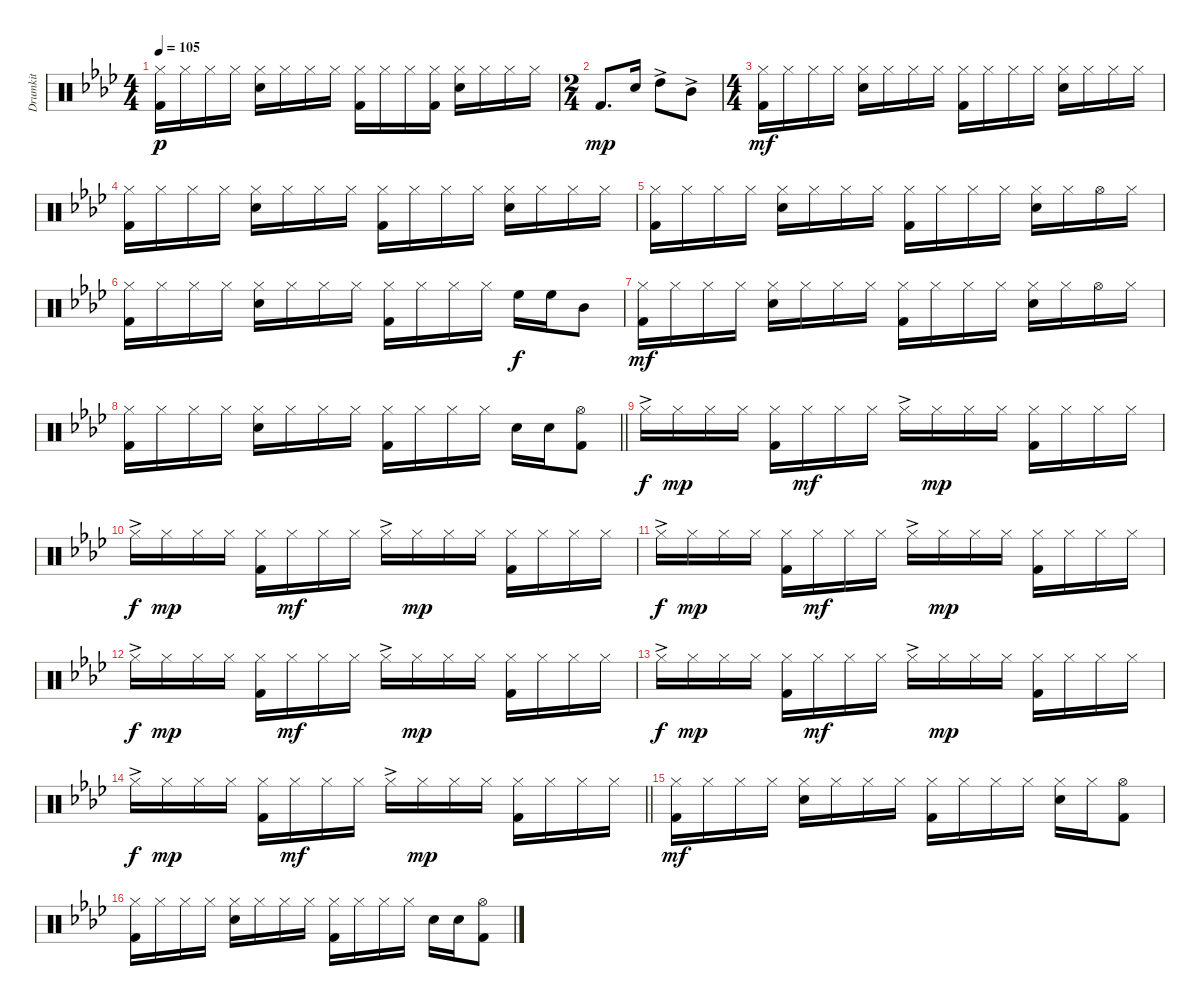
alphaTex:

\track ("Drumkit" "Drumkit") {instrument percussion}
\staff {score}
\articulation defaults
\ts (4 4)
\tempo 105
\clef neutral
\ks ab
("Hi-Hat (closed)" "Kick (hit) 2").16{dy p} "Hi-Hat (closed)".16 "Hi-Hat (closed)".16 "Hi-Hat (closed)".16 ("Hi-Hat (closed)" "Snare (hit) 2").16 "Hi-Hat (closed)".16 "Hi-Hat (closed)".16 "Hi-Hat (closed)".16 ("Hi-Hat (closed)" "Kick (hit) 2").16 "Hi-Hat (closed)".16 "Hi-Hat (closed)".16 ("Hi-Hat (closed)" "Kick (hit) 2").16 ("Hi-Hat (closed)" "Snare (hit) 2").16 "Hi-Hat (closed)".16 "Hi-Hat (closed)".16 "Hi-Hat (closed)".16 |
\ts (2 4)
"Kick (hit) 2".8{d dy mp} "Snare (hit) 2".16 "High Tom (hit)"{ac}.8 "Mid Tom (hit)"{ac}.8 |
\ts (4 4)
("Hi-Hat (closed)" "Kick (hit) 2").16{dy mf} "Hi-Hat (closed)".16 "Hi-Hat (closed)".16 "Hi-Hat (closed)".16 ("Hi-Hat (closed)" "Snare (hit) 2").16 "Hi-Hat (closed)".16 "Hi-Hat (closed)".16 "Hi-Hat (closed)".16 ("Hi-Hat (closed)" "Kick (hit) 2").16 "Hi-Hat (closed)".16 "Hi-Hat (closed)".16 "Hi-Hat (closed)".16 ("Hi-Hat (closed)" "Snare (hit) 2").16 "Hi-Hat (closed)".16 "Hi-Hat (closed)".16 "Hi-Hat (closed)".16 |
("Hi-Hat (closed)" "Kick (hit) 2").16 "Hi-Hat (closed)".16 "Hi-Hat (closed)".16 "Hi-Hat (closed)".16 ("Hi-Hat (closed)" "Snare (hit) 2").16 "Hi-Hat (closed)".16 "Hi-Hat (closed)".16 "Hi-Hat (closed)".16 ("Hi-Hat (closed)" "Kick (hit) 2").16 "Hi-Hat (closed)".16 "Hi-Hat (closed)".16 "Hi-Hat (closed)".16 ("Hi-Hat (closed)" "Snare (hit) 2").16 "Hi-Hat (closed)".16 "Hi-Hat (closed)".16 "Hi-Hat (closed)".16 |
("Hi-Hat (closed)" "Kick (hit) 2").16 "Hi-Hat (closed)".16 "Hi-Hat (closed)".16 "Hi-Hat (closed)".16 ("Hi-Hat (closed)" "Snare (hit) 2").16 "Hi-Hat (closed)".16 "Hi-Hat (closed)".16 "Hi-Hat (closed)".16 ("Hi-Hat (closed)" "Kick (hit) 2").16 "Hi-Hat (closed)".16 "Hi-Hat (closed)".16 "Hi-Hat (closed)".16 ("Hi-Hat (closed)" "Snare (hit) 2").16 "Hi-Hat (closed)".16 "Hi-Hat (open)".16 "Hi-Hat (closed)".16 |
("Hi-Hat (closed)" "Kick (hit) 2").16 "Hi-Hat (closed)".16 "Hi-Hat (closed)".16 "Hi-Hat (closed)".16 ("Hi-Hat (closed)" "Snare (hit) 2").16 "Hi-Hat (closed)".16 "Hi-Hat (closed)".16 "Hi-Hat (closed)".16 ("Hi-Hat (closed)" "Kick (hit) 2").16 "Hi-Hat (closed)".16 "Hi-Hat (closed)".16 "Hi-Hat (closed)".16 "High Floor Tom (hit)".16{dy f} "High Floor Tom (hit)".16 "Mid Tom (hit)".8 |
("Hi-Hat (closed)" "Kick (hit) 2").16{dy mf} "Hi-Hat (closed)".16 "Hi-Hat (closed)".16 "Hi-Hat (closed)".16 ("Hi-Hat (closed)" "Snare (hit) 2").16 "Hi-Hat (closed)".16 "Hi-Hat (closed)".16 "Hi-Hat (closed)".16 ("Hi-Hat (closed)" "Kick (hit) 2").16 "Hi-Hat (closed)".16 "Hi-Hat (closed)".16 "Hi-Hat (closed)".16 ("Hi-Hat (closed)" "Snare (hit) 2").16 "Hi-Hat (closed)".16 "Hi-Hat (open)".16 "Hi-Hat (closed)".16 |
\barLineRight lightlight
("Hi-Hat (closed)" "Kick (hit) 2").16 "Hi-Hat (closed)".16 "Hi-Hat (closed)".16 "Hi-Hat (closed)".16 ("Hi-Hat (closed)" "Snare (hit) 2").16 "Hi-Hat (closed)".16 "Hi-Hat (closed)".16 "Hi-Hat (closed)".16 ("Hi-Hat (closed)" "Kick (hit) 2").16 "Hi-Hat (closed)".16 "Hi-Hat (closed)".16 "Hi-Hat (closed)".16 "Snare (hit) 2".16 "Snare (hit) 2".16 ("Kick (hit) 2" "Hi-Hat (open)").8 |
"Hi-Hat (closed)"{ac}.16{dy f} "Hi-Hat (closed)".16{dy mp} "Hi-Hat (closed)".16 "Hi-Hat (closed)".16 ("Kick (hit) 2" "Hi-Hat (closed)").16 "Hi-Hat (closed)".16{dy mf} "Hi-Hat (closed)".16 "Hi-Hat (closed)".16 "Hi-Hat (closed)"{ac}.16 "Hi-Hat (closed)".16{dy mp} "Hi-Hat (closed)".16 "Hi-Hat (closed)".16 ("Kick (hit) 2" "Hi-Hat (closed)").16 "Hi-Hat (closed)".16 "Hi-Hat (closed)".16 "Hi-Hat (closed)".16 |
"Hi-Hat (closed)"{ac}.16{dy f} "Hi-Hat (closed)".16{dy mp} "Hi-Hat (closed)".16 "Hi-Hat (closed)".16 ("Kick (hit) 2" "Hi-Hat (closed)").16 "Hi-Hat (closed)".16{dy mf} "Hi-Hat (closed)".16 "Hi-Hat (closed)".16 "Hi-Hat (closed)"{ac}.16 "Hi-Hat (closed)".16{dy mp} "Hi-Hat (closed)".16 "Hi-Hat (closed)".16 ("Kick (hit) 2" "Hi-Hat (closed)").16 "Hi-Hat (closed)".16 "Hi-Hat (closed)".16 "Hi-Hat (closed)".16 |
"Hi-Hat (closed)"{ac}.16{dy f} "Hi-Hat (closed)".16{dy mp} "Hi-Hat (closed)".16 "Hi-Hat (closed)".16 ("Kick (hit) 2" "Hi-Hat (closed)").16 "Hi-Hat (closed)".16{dy mf} "Hi-Hat (closed)".16 "Hi-Hat (closed)".16 "Hi-Hat (closed)"{ac}.16 "Hi-Hat (closed)".16{dy mp} "Hi-Hat (closed)".16 "Hi-Hat (closed)".16 ("Kick (hit) 2" "Hi-Hat (closed)").16 "Hi-Hat (closed)".16 "Hi-Hat (closed)".16 "Hi-Hat (closed)".16 |
"Hi-Hat (closed)"{ac}.16{dy f} "Hi-Hat (closed)".16{dy mp} "Hi-Hat (closed)".16 "Hi-Hat (closed)".16 ("Kick (hit) 2" "Hi-Hat (closed)").16 "Hi-Hat (closed)".16{dy mf} "Hi-Hat (closed)".16 "Hi-Hat (closed)".16 "Hi-Hat (closed)"{ac}.16 "Hi-Hat (closed)".16{dy mp} "Hi-Hat (closed)".16 "Hi-Hat (closed)".16 ("Kick (hit) 2" "Hi-Hat (closed)").16 "Hi-Hat (closed)".16 "Hi-Hat (closed)".16 "Hi-Hat (closed)".16 |
"Hi-Hat (closed)"{ac}.16{dy f} "Hi-Hat (closed)".16{dy mp} "Hi-Hat (closed)".16 "Hi-Hat (closed)".16 ("Kick (hit) 2" "Hi-Hat (closed)").16 "Hi-Hat (closed)".16{dy mf} "Hi-Hat (closed)".16 "Hi-Hat (closed)".16 "Hi-Hat (closed)"{ac}.16 "Hi-Hat (closed)".16{dy mp} "Hi-Hat (closed)".16 "Hi-Hat (closed)".16 ("Kick (hit) 2" "Hi-Hat (closed)").16 "Hi-Hat (closed)".16 "Hi-Hat (closed)".16 "Hi-Hat (closed)".16 |
\barLineRight lightlight "Hi-Hat (closed)"{ac}.16{dy f} "Hi-Hat (closed)".16{dy mp} "Hi-Hat (closed)".16 "Hi-Hat (closed)".16
("Kick (hit) 2" "Hi-Hat (closed)").16 "Hi-Hat (closed)".16{dy mf} "Hi-Hat (closed)".16 "Hi-Hat (closed)".16 "Hi-Hat (closed)"{ac}.16 "Hi-Hat (closed)".16{dy mp} "Hi-Hat (closed)".16 "Hi-Hat (closed)".16 ("Kick (hit) 2" "Hi-Hat (closed)").16 "Hi-Hat (closed)".16 "Hi-Hat (closed)".16 "Hi-Hat (closed)".16 |
("Hi-Hat (closed)" "Kick (hit) 2").16{dy mf} "Hi-Hat (closed)".16 "Hi-Hat (closed)".16 "Hi-Hat (closed)".16 ("Hi-Hat (closed)" "Snare (hit) 2").16 "Hi-Hat (closed)".16 "Hi-Hat (closed)".16 "Hi-Hat (closed)".16 ("Hi-Hat (closed)" "Kick (hit) 2").16 "Hi-Hat (closed)".16 "Hi-Hat (closed)".16 "Hi-Hat (closed)".16 ("Hi-Hat (closed)" "Snare (hit) 2").16 "Hi-Hat (closed)".16 ("Hi-Hat (open)" "Kick (hit) 2").8 |
("Hi-Hat (closed)" "Kick (hit) 2").16 "Hi-Hat (closed)".16 "Hi-Hat (closed)".16 "Hi-Hat (closed)".16 ("Hi-Hat (closed)" "Snare (hit) 2").16 "Hi-Hat (closed)".16 "Hi-Hat (closed)".16 "Hi-Hat (closed)".16 ("Hi-Hat (closed)" "Kick (hit) 2").16 "Hi-Hat (closed)".16 "Hi-Hat (closed)".16 "Hi-Hat (closed)".16 "Snare (hit) 2".16 "Snare (hit) 2".16 ("Kick (hit) 2" "Hi-Hat (open)").8
